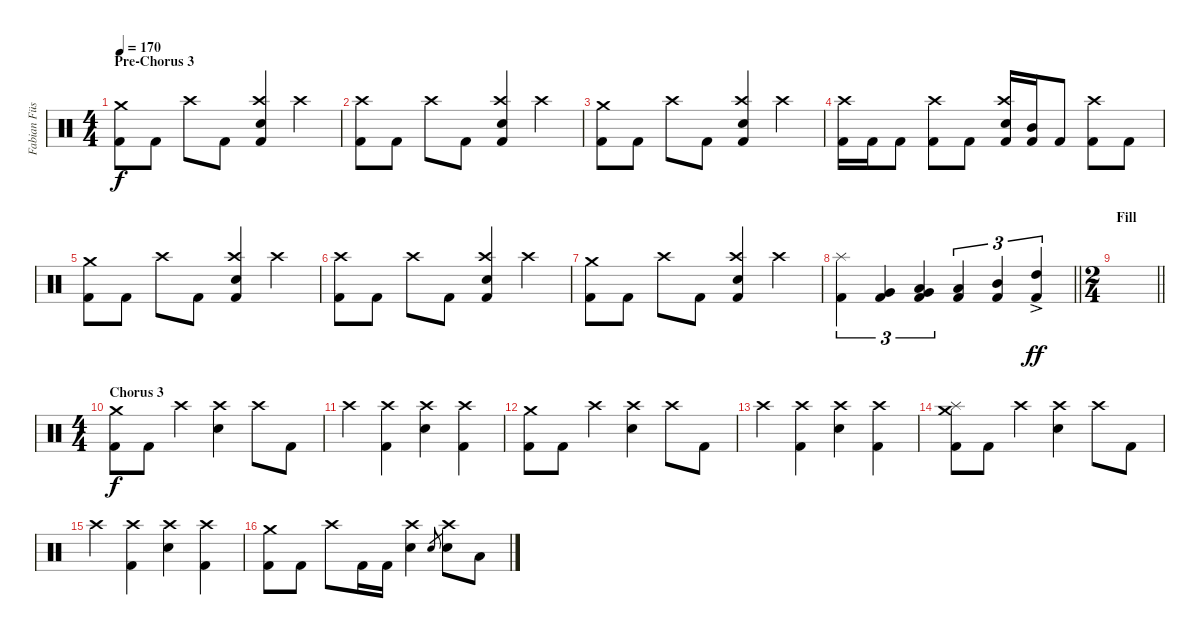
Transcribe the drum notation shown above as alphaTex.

\track ("Fabian Füss" "Fabian Füs") {instrument percussion}
\staff {score}
\articulation defaults
\ts (4 4)
\section ("" "Pre-Chorus 3")
\tempo 170
\clef neutral
\ks c
("Crash medium (hit)" "Kick (hit) 2").8{dy f} "Kick (hit) 2".8 "Crash high (hit)".8 "Kick (hit) 2".8 ("Crash high (hit)" "Snare (hit) 2" "Kick (hit) 2").4 "Crash high (hit)".4 |
("Crash high (hit)" "Kick (hit) 2").8 "Kick (hit) 2".8 "Crash high (hit)".8 "Kick (hit) 2".8 ("Crash high (hit)" "Snare (hit) 2" "Kick (hit) 2").4 "Crash high (hit)".4 |
("Crash medium (hit)" "Kick (hit) 2").8 "Kick (hit) 2".8 "Crash high (hit)".8 "Kick (hit) 2".8 ("Crash high (hit)" "Snare (hit) 2" "Kick (hit) 2").4 "Crash high (hit)".4 |
("Crash high (hit)" "Kick (hit) 2").16 "Kick (hit) 2".16 "Kick (hit) 2".8 ("Crash high (hit)" "Kick (hit) 2").8 "Kick (hit) 2".8 ("Crash high (hit)" "Snare (hit) 2" "Kick (hit) 2").16 ("Mid Tom (hit)" "Kick (hit) 2").16 "Kick (hit) 2".8 ("Crash high (hit)" "Kick (hit) 2").8 "Kick (hit) 2".8 |
("Crash medium (hit)" "Kick (hit) 2").8 "Kick (hit) 2".8 "Crash high (hit)".8 "Kick (hit) 2".8 ("Crash high (hit)" "Snare (hit) 2" "Kick (hit) 2").4 "Crash high (hit)".4 |
("Crash high (hit)" "Kick (hit) 2").8 "Kick (hit) 2".8 "Crash high (hit)".8 "Kick (hit) 2".8 ("Crash high (hit)" "Snare (hit) 2" "Kick (hit) 2").4 "Crash high (hit)".4 |
("Crash medium (hit)" "Kick (hit) 2").8 "Kick (hit) 2".8 "Crash high (hit)".8 "Kick (hit) 2".8 ("Crash high (hit)" "Snare (hit) 2" "Kick (hit) 2").4 "Crash high (hit)".4 |
\barLineRight lightlight
("Splash (hit)" "Kick (hit) 2").4{tu (3 2)} ("Very Low Tom (hit)" "Kick (hit) 2").4{tu (3 2)} ("Low Tom (hit)" "Very Low Tom (hit)" "Kick (hit) 2").4{tu (3 2)} ("Low Tom (hit)" "Kick (hit) 2").4{tu (3 2)} ("Mid Tom (hit)" "Kick (hit) 2").4{tu (3 2)} ("High Tom (hit)"{ac} "Kick (hit) 2").4{tu (3 2) dy ff} |
\ts (2 4)
\section ("" "Fill")
\barLineRight lightlight
|
\ts (4 4)
\section ("" "Chorus 3")
("Crash medium (hit)" "Kick (hit) 2").8{dy f} "Kick (hit) 2".8 "Crash high (hit)".4 ("Crash high (hit)" "Snare (hit) 2").4 "Crash high (hit)".8 "Kick (hit) 2".8 |
"Crash high (hit)".4 ("Crash high (hit)" "Kick (hit) 2").4 ("Crash high (hit)" "Snare (hit) 2").4 ("Crash high (hit)" "Kick (hit) 2").4 |
("Crash medium (hit)" "Kick (hit) 2").8 "Kick (hit) 2".8 "Crash high (hit)".4 ("Crash high (hit)" "Snare (hit) 2").4 "Crash high (hit)".8 "Kick (hit) 2".8 |
"Crash high (hit)".4 ("Crash high (hit)" "Kick (hit) 2").4 ("Crash high (hit)" "Snare (hit) 2").4 ("Crash high (hit)" "Kick (hit) 2").4 |
("Crash medium (hit)" "Splash (hit)" "Kick (hit) 2").8 "Kick (hit) 2".8 "Crash high (hit)".4 ("Crash high (hit)" "Snare (hit) 2").4 "Crash high (hit)".8 "Kick (hit) 2".8 |
"Crash high (hit)".4 ("Crash high (hit)" "Kick (hit) 2").4 ("Crash high (hit)" "Snare (hit) 2").4 ("Crash high (hit)" "Kick (hit) 2").4 |
("Crash medium (hit)" "Kick (hit) 2").8 "Kick (hit) 2".8 "Crash high (hit)".8 "Kick (hit) 2".16 "Kick (hit) 2".16 ("Crash high (hit)" "Snare (hit) 2").4 "Snare (hit) 2".8{gr} ("Crash high (hit)" "Snare (hit) 2").8 "Low Tom (hit)".8
